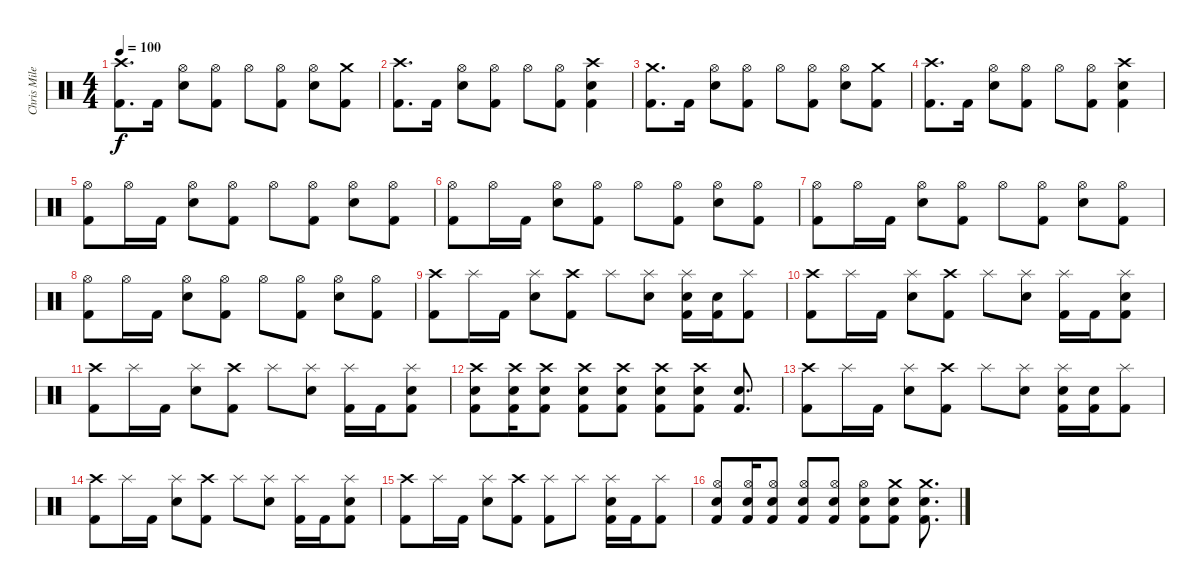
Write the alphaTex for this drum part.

\track ("Chris Mileski" "Chris Mile") {instrument percussion}
\staff {score}
\articulation defaults
\ts (4 4)
\tempo 100
\clef neutral
\ks c
("Crash high (hit)" "Kick (hit) 2").8{d dy f} "Kick (hit) 2".16 ("Hi-Hat (open)" "Electric Snare (hit)").8 ("Hi-Hat (open)" "Kick (hit) 2").8 "Hi-Hat (open)".8 ("Hi-Hat (open)" "Kick (hit) 2").8 ("Hi-Hat (open)" "Electric Snare (hit)").8 ("Crash medium (hit)" "Kick (hit) 2").8 |
("Crash high (hit)" "Kick (hit) 2").8{d} "Kick (hit) 2".16 ("Hi-Hat (open)" "Electric Snare (hit)").8 ("Hi-Hat (open)" "Kick (hit) 2").8 "Hi-Hat (open)".8 ("Hi-Hat (open)" "Kick (hit) 2").8 ("Crash high (hit)" "Electric Snare (hit)" "Kick (hit) 2").4 |
("Crash medium (hit)" "Kick (hit) 2").8{d} "Kick (hit) 2".16 ("Hi-Hat (open)" "Electric Snare (hit)").8 ("Hi-Hat (open)" "Kick (hit) 2").8 "Hi-Hat (open)".8 ("Hi-Hat (open)" "Kick (hit) 2").8 ("Hi-Hat (open)" "Electric Snare (hit)").8 ("Crash medium (hit)" "Kick (hit) 2").8 |
("Crash high (hit)" "Kick (hit) 2").8{d} "Kick (hit) 2".16 ("Hi-Hat (open)" "Electric Snare (hit)").8 ("Hi-Hat (open)" "Kick (hit) 2").8 "Hi-Hat (open)".8 ("Hi-Hat (open)" "Kick (hit) 2").8 ("Crash high (hit)" "Electric Snare (hit)" "Kick (hit) 2").4 |
("Hi-Hat (open)" "Kick (hit) 2").8 "Hi-Hat (open)".16 "Kick (hit) 2".16 ("Hi-Hat (open)" "Electric Snare (hit)").8 ("Hi-Hat (open)" "Kick (hit) 2").8 "Hi-Hat (open)".8 ("Hi-Hat (open)" "Kick (hit) 2").8 ("Hi-Hat (open)" "Electric Snare (hit)").8 ("Hi-Hat (open)" "Kick (hit) 2").8 |
("Hi-Hat (open)" "Kick (hit) 2").8 "Hi-Hat (open)".16 "Kick (hit) 2".16 ("Hi-Hat (open)" "Electric Snare (hit)").8 ("Hi-Hat (open)" "Kick (hit) 2").8 "Hi-Hat (open)".8 ("Hi-Hat (open)" "Kick (hit) 2").8 ("Hi-Hat (open)" "Electric Snare (hit)").8 ("Hi-Hat (open)" "Kick (hit) 2").8 |
("Hi-Hat (open)" "Kick (hit) 2").8 "Hi-Hat (open)".16 "Kick (hit) 2".16 ("Hi-Hat (open)" "Electric Snare (hit)").8 ("Hi-Hat (open)" "Kick (hit) 2").8 "Hi-Hat (open)".8 ("Hi-Hat (open)" "Kick (hit) 2").8 ("Hi-Hat (open)" "Electric Snare (hit)").8 ("Hi-Hat (open)" "Kick (hit) 2").8 |
("Hi-Hat (open)" "Kick (hit) 2").8 "Hi-Hat (open)".16 "Kick (hit) 2".16 ("Hi-Hat (open)" "Electric Snare (hit)").8 ("Hi-Hat (open)" "Kick (hit) 2").8 "Hi-Hat (open)".8 ("Hi-Hat (open)" "Kick (hit) 2").8 ("Hi-Hat (open)" "Electric Snare (hit)").8 ("Hi-Hat (open)" "Kick (hit) 2").8 |
("Crash high (hit)" "Kick (hit) 2").8 "Splash (hit)".16 "Kick (hit) 2".16 ("Splash (hit)" "Electric Snare (hit)").8 ("Crash high (hit)" "Kick (hit) 2").8 "Splash (hit)".8 ("Splash (hit)" "Electric Snare (hit)").8 ("Splash (hit)" "Electric Snare (hit)" "Kick (hit) 2").16 ("Electric Snare (hit)" "Kick (hit) 2").16 ("Splash (hit)" "Kick (hit) 2").8 |
("Crash high (hit)" "Kick (hit) 2").8 "Splash (hit)".16 "Kick (hit) 2".16 ("Splash (hit)" "Electric Snare (hit)").8 ("Crash high (hit)" "Kick (hit) 2").8 "Splash (hit)".8 ("Splash (hit)" "Electric Snare (hit)").8 ("Splash (hit)" "Kick (hit) 2").16 "Kick (hit) 2".16 ("Splash (hit)" "Electric Snare (hit)" "Kick (hit) 2").8 |
("Crash high (hit)" "Kick (hit) 2").8 "Splash (hit)".16 "Kick (hit) 2".16 ("Splash (hit)" "Electric Snare (hit)").8 ("Crash high (hit)" "Kick (hit) 2").8 "Splash (hit)".8 ("Splash (hit)" "Electric Snare (hit)").8 ("Splash (hit)" "Kick (hit) 2").16 "Kick (hit) 2".16 ("Splash (hit)" "Electric Snare (hit)" "Kick (hit) 2").8 |
("Crash high (hit)" "Electric Snare (hit)" "Kick (hit) 2").8 ("Crash high (hit)" "Electric Snare (hit)" "Kick (hit) 2").16 ("Crash high (hit)" "Electric Snare (hit)" "Kick (hit) 2").8 ("Crash high (hit)" "Electric Snare (hit)" "Kick (hit) 2").8 ("Crash high (hit)" "Electric Snare (hit)" "Kick (hit) 2").8 ("Crash high (hit)" "Electric Snare (hit)" "Kick (hit) 2").8 ("Crash high (hit)" "Electric Snare (hit)" "Kick (hit) 2").8 ("Electric Snare (hit)" "Kick (hit) 2").8{d} |
("Crash high (hit)" "Kick (hit) 2").8 "Splash (hit)".16 "Kick (hit) 2".16 ("Splash (hit)" "Electric Snare (hit)").8 ("Crash high (hit)" "Kick (hit) 2").8 "Splash (hit)".8 ("Splash (hit)" "Electric Snare (hit)").8 ("Splash (hit)" "Electric Snare (hit)" "Kick (hit) 2").16 ("Electric Snare (hit)" "Kick (hit) 2").16 ("Splash (hit)" "Kick (hit) 2").8 |
("Crash high (hit)" "Kick (hit) 2").8 "Splash (hit)".16 "Kick (hit) 2".16 ("Splash (hit)" "Electric Snare (hit)").8 ("Crash high (hit)" "Kick (hit) 2").8 "Splash (hit)".8 ("Splash (hit)" "Electric Snare (hit)").8 ("Splash (hit)" "Kick (hit) 2").16 "Kick (hit) 2".16 ("Splash (hit)" "Electric Snare (hit)" "Kick (hit) 2").8 |
("Crash high (hit)" "Kick (hit) 2").8 "Splash (hit)".16 "Kick (hit) 2".16 ("Splash (hit)" "Electric Snare (hit)").8 ("Crash high (hit)" "Kick (hit) 2").8 ("Splash (hit)" "Kick (hit) 2").8 "Splash (hit)".8 ("Splash (hit)" "Electric Snare (hit)" "Kick (hit) 2").16 "Kick (hit) 2".16 ("Splash (hit)" "Kick (hit) 2").8 |
("Hi-Hat (open)" "Electric Snare (hit)" "Kick (hit) 2").8 ("Hi-Hat (open)" "Electric Snare (hit)" "Kick (hit) 2").16 ("Hi-Hat (open)" "Electric Snare (hit)" "Kick (hit) 2").8 ("Hi-Hat (open)" "Electric Snare (hit)" "Kick (hit) 2").8 ("Hi-Hat (open)" "Electric Snare (hit)" "Kick (hit) 2").8 ("Hi-Hat (open)" "Electric Snare (hit)" "Kick (hit) 2").8 ("Crash medium (hit)" "Electric Snare (hit)" "Kick (hit) 2").8 ("Crash medium (hit)" "Electric Snare (hit)" "Kick (hit) 2").8{d}
